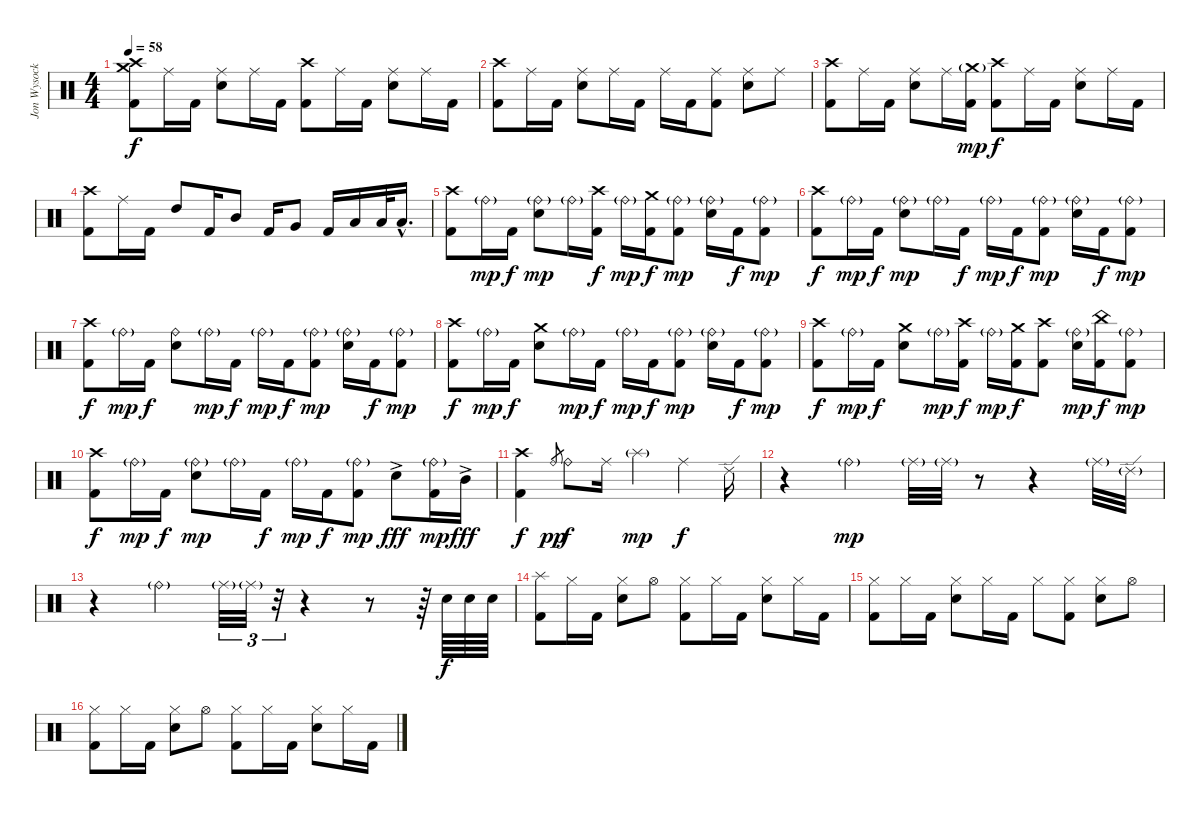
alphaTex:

\track ("Jon Wysocki  (Drums)" "Jon Wysock") {instrument percussion}
\staff {score}
\articulation defaults
\ts (4 4)
\tempo 58
\clef neutral
\ks c
("Crash high (hit)" "Crash medium (hit)" "Kick (hit) 2").8{dy f} "Ride (middle)".16 "Kick (hit) 2".16 ("Ride (middle)" "Electric Snare (hit)").8 "Ride (middle)".16 "Kick (hit) 2".16 ("Crash high (hit)" "Kick (hit) 2").8 "Ride (middle)".16 "Kick (hit) 2".16 ("Ride (middle)" "Electric Snare (hit)").8 "Ride (middle)".16 "Kick (hit) 2".16 |
("Crash high (hit)" "Kick (hit) 2").8 "Ride (middle)".16 "Kick (hit) 2".16 ("Ride (middle)" "Electric Snare (hit)").8 "Ride (middle)".16 "Kick (hit) 2".16 "Ride (middle)".16 "Kick (hit) 2".16 ("Ride (middle)" "Kick (hit) 2").8 ("Ride (middle)" "Electric Snare (hit)").8 "Ride (middle)".8 |
("Crash high (hit)" "Kick (hit) 2").8 "Ride (middle)".16 "Kick (hit) 2".16 ("Ride (middle)" "Electric Snare (hit)").8 "Ride (middle)".16 ("Crash medium (hit)"{g} "Kick (hit) 2").16{dy mp} ("Crash high (hit)" "Kick (hit) 2").8{dy f} "Ride (middle)".16 "Kick (hit) 2".16 ("Ride (middle)" "Electric Snare (hit)").8 "Ride (middle)".16 "Kick (hit) 2".16 |
("Crash high (hit)" "Kick (hit) 2").8 "Ride (middle)".16 "Kick (hit) 2".16 "High Tom (hit)".8 "Kick (hit) 2".16 "Mid Tom (hit)".8 "Kick (hit) 2".16 "Very Low Tom (hit)".8 "Kick (hit) 2".16 "Low Floor Tom (hit)".16 "Low Floor Tom (hit)".32 "Low Floor Tom (hit)"{hac}.16{d} |
("Crash high (hit)" "Kick (hit) 2").8 "Ride (bell)"{g}.16{dy mp} "Kick (hit) 2".16{dy f} ("Ride (bell)"{g} "Electric Snare (hit)").8{dy mp} "Ride (bell)"{g}.16 ("Crash high (hit)" "Kick (hit) 2").16{dy f} "Ride (bell)"{g}.16{dy mp} ("Crash medium (hit)" "Kick (hit) 2").16{dy f} ("Ride (bell)"{g} "Kick (hit) 2").8{dy mp} ("Ride (bell)"{g} "Electric Snare (hit)").16 "Kick (hit) 2".16{dy f} ("Ride (bell)"{g} "Kick (hit) 2").8{dy mp} |
("Crash high (hit)" "Kick (hit) 2").8{dy f} "Ride (bell)"{g}.16{dy mp} "Kick (hit) 2".16{dy f} ("Ride (bell)"{g} "Electric Snare (hit)").8{dy mp} "Ride (bell)"{g}.16 "Kick (hit) 2".16{dy f} "Ride (bell)"{g}.16{dy mp} "Kick (hit) 2".16{dy f} ("Ride (bell)"{g} "Kick (hit) 2").8{dy mp} ("Ride (bell)"{g} "Electric Snare (hit)").16 "Kick (hit) 2".16{dy f} ("Ride (bell)"{g} "Kick (hit) 2").8{dy mp} |
("Crash high (hit)" "Kick (hit) 2").8{dy f} "Ride (bell)"{g}.16{dy mp} "Kick (hit) 2".16{dy f} ("Ride (bell)" "Electric Snare (hit)").8 "Ride (bell)"{g}.16{dy mp} "Kick (hit) 2".16{dy f} "Ride (bell)"{g}.16{dy mp} "Kick (hit) 2".16{dy f} ("Ride (bell)"{g} "Kick (hit) 2").8{dy mp} ("Ride (bell)"{g} "Electric Snare (hit)").16 "Kick (hit) 2".16{dy f} ("Ride (bell)"{g} "Kick (hit) 2").8{dy mp} |
("Crash high (hit)" "Kick (hit) 2").8{dy f} "Ride (bell)"{g}.16{dy mp} "Kick (hit) 2".16{dy f} ("Crash medium (hit)" "Electric Snare (hit)").8 "Ride (bell)"{g}.16{dy mp} "Kick (hit) 2".16{dy f} "Ride (bell)"{g}.16{dy mp} "Kick (hit) 2".16{dy f} ("Ride (bell)"{g} "Kick (hit) 2").8{dy mp} ("Ride (bell)"{g} "Electric Snare (hit)").16 "Kick (hit) 2".16{dy f} ("Ride (bell)"{g} "Kick (hit) 2").8{dy mp} |
("Crash high (hit)" "Kick (hit) 2").8{dy f} "Ride (bell)"{g}.16{dy mp} "Kick (hit) 2".16{dy f} ("Crash medium (hit)" "Electric Snare (hit)").8 "Ride (bell)"{g}.16{dy mp} ("Crash high (hit)" "Kick (hit) 2").16{dy f} "Ride (bell)"{g}.16{dy mp} ("Crash medium (hit)" "Kick (hit) 2").16{dy f} ("Crash high (hit)" "Kick (hit) 2").8 ("Ride (bell)"{g} "Electric Snare (hit)").16{dy mp} ("China (hit)" "Kick (hit) 2").16{dy f} ("Ride (bell)"{g} "Kick (hit) 2").8{dy mp} |
("Crash high (hit)" "Kick (hit) 2").8{dy f} "Ride (bell)"{g}.16{dy mp} "Kick (hit) 2".16{dy f} ("Ride (bell)"{g} "Electric Snare (hit)").8{dy mp} "Ride (bell)"{g}.16 "Kick (hit) 2".16{dy f} "Ride (bell)"{g}.16{dy mp} "Kick (hit) 2".16{dy f} ("Ride (bell)"{g} "Kick (hit) 2").8{dy mp} "Electric Snare (hit)"{ac}.8{dy fff} ("Ride (bell)"{g} "Kick (hit) 2").16{dy mp} "Mid Tom (hit)"{ac}.16{dy fff} |
("Crash high (hit)" "Kick (hit) 2").4{dy f} "Ride (bell)".8{gr dy pp} "Ride (bell)".8{dy f} "Ride (middle)".16 "Splash (hit)"{g}.4{dy mp} "Ride (middle)".4{dy f} "Ride (edge) 2".16 |
r.4 "Ride (bell)"{g}.4{dy mp} "Ride (middle)"{g}.32 "Ride (middle)"{g}.32 r.8 r.4 "Ride (middle)"{g}.32 "Ride (edge) 2"{g}.32 |
r.4 "Ride (bell)"{g}.4 "Ride (middle)"{g}.32{tu (3 2)} "Ride (middle)"{g}.32{tu (3 2)} r.32{tu (3 2)} r.4 r.8 r.64 "Snare (hit) 2".64{dy f} "Snare (hit) 2".64 "Snare (hit) 2".64 |
("Splash (hit)" "Kick (hit) 2").8 "Hi-Hat (closed)".16 "Kick (hit) 2".16 ("Hi-Hat (closed)" "Electric Snare (hit)").8 "Hi-Hat (open)".8 ("Hi-Hat (closed)" "Kick (hit) 2").8 "Hi-Hat (closed)".16 "Kick (hit) 2".16 ("Hi-Hat (closed)" "Electric Snare (hit)").8 "Hi-Hat (closed)".16 "Kick (hit) 2".16 |
("Hi-Hat (closed)" "Kick (hit) 2").8 "Hi-Hat (closed)".16 "Kick (hit) 2".16 ("Hi-Hat (closed)" "Electric Snare (hit)").8 "Hi-Hat (closed)".16 "Kick (hit) 2".16 "Hi-Hat (closed)".8 ("Hi-Hat (closed)" "Kick (hit) 2").8 ("Hi-Hat (closed)" "Electric Snare (hit)").8 "Hi-Hat (open)".8 |
("Hi-Hat (closed)" "Kick (hit) 2").8 "Hi-Hat (closed)".16 "Kick (hit) 2".16 ("Hi-Hat (closed)" "Electric Snare (hit)").8 "Hi-Hat (open)".8 ("Hi-Hat (closed)" "Kick (hit) 2").8 "Hi-Hat (closed)".16 "Kick (hit) 2".16 ("Hi-Hat (closed)" "Electric Snare (hit)").8 "Hi-Hat (closed)".16 "Kick (hit) 2".16
